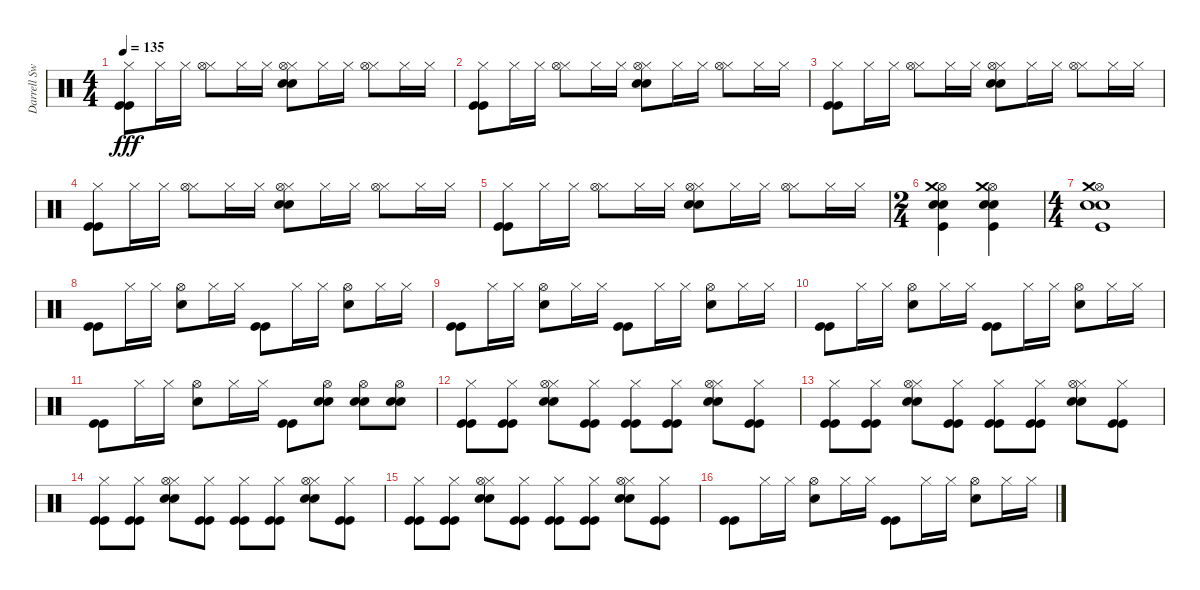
\track ("Darrell Sweet (drums)" "Darrell Sw") {instrument percussion}
\staff {score}
\articulation defaults
\ts (4 4)
\tempo 135
\clef neutral
\ks c
("Hi-Hat (closed)" "Kick (hit)" "Kick (hit)").8{dy fff} "Hi-Hat (closed)".16 "Hi-Hat (closed)".16 ("Hi-Hat (closed)" "Hi-Hat (open)").8 "Hi-Hat (closed)".16 "Hi-Hat (closed)".16 ("Hi-Hat (closed)" "Snare (hit) 2" "Electric Snare (hit)" "Hi-Hat (open)").8 "Hi-Hat (closed)".16 "Hi-Hat (closed)".16 ("Hi-Hat (closed)" "Hi-Hat (open)").8 "Hi-Hat (closed)".16 "Hi-Hat (closed)".16 |
("Hi-Hat (closed)" "Kick (hit)" "Kick (hit)").8 "Hi-Hat (closed)".16 "Hi-Hat (closed)".16 ("Hi-Hat (closed)" "Hi-Hat (open)").8 "Hi-Hat (closed)".16 "Hi-Hat (closed)".16 ("Hi-Hat (closed)" "Snare (hit) 2" "Electric Snare (hit)" "Hi-Hat (open)").8 "Hi-Hat (closed)".16 "Hi-Hat (closed)".16 ("Hi-Hat (closed)" "Hi-Hat (open)").8 "Hi-Hat (closed)".16 "Hi-Hat (closed)".16 |
("Hi-Hat (closed)" "Kick (hit)" "Kick (hit)").8 "Hi-Hat (closed)".16 "Hi-Hat (closed)".16 ("Hi-Hat (closed)" "Hi-Hat (open)").8 "Hi-Hat (closed)".16 "Hi-Hat (closed)".16 ("Hi-Hat (closed)" "Snare (hit) 2" "Electric Snare (hit)" "Hi-Hat (open)").8 "Hi-Hat (closed)".16 "Hi-Hat (closed)".16 ("Hi-Hat (closed)" "Hi-Hat (open)").8 "Hi-Hat (closed)".16 "Hi-Hat (closed)".16 |
("Hi-Hat (closed)" "Kick (hit)" "Kick (hit)").8 "Hi-Hat (closed)".16 "Hi-Hat (closed)".16 ("Hi-Hat (closed)" "Hi-Hat (open)").8 "Hi-Hat (closed)".16 "Hi-Hat (closed)".16 ("Hi-Hat (closed)" "Snare (hit) 2" "Electric Snare (hit)" "Hi-Hat (open)").8 "Hi-Hat (closed)".16 "Hi-Hat (closed)".16 ("Hi-Hat (closed)" "Hi-Hat (open)").8 "Hi-Hat (closed)".16 "Hi-Hat (closed)".16 |
("Hi-Hat (closed)" "Kick (hit)" "Kick (hit)").8 "Hi-Hat (closed)".16 "Hi-Hat (closed)".16 ("Hi-Hat (closed)" "Hi-Hat (open)").8 "Hi-Hat (closed)".16 "Hi-Hat (closed)".16 ("Hi-Hat (closed)" "Snare (hit) 2" "Electric Snare (hit)" "Hi-Hat (open)").8 "Hi-Hat (closed)".16 "Hi-Hat (closed)".16 ("Hi-Hat (closed)" "Hi-Hat (open)").8 "Hi-Hat (closed)".16 "Hi-Hat (closed)".16 |
\ts (2 4)
("Snare (hit) 2" "Electric Snare (hit)" "Hi-Hat (open)" "Kick (hit)" "Crash medium (hit)").4 ("Snare (hit) 2" "Electric Snare (hit)" "Hi-Hat (open)" "Kick (hit)" "Crash medium (hit)").4 |
\ts (4 4)
("Snare (hit) 2" "Electric Snare (hit)" "Hi-Hat (open)" "Kick (hit)" "Crash medium (hit)").1 |
("Kick (hit)" "Kick (hit)").8 "Hi-Hat (closed)".16 "Hi-Hat (closed)".16 ("Snare (hit) 2" "Hi-Hat (open)").8 "Hi-Hat (closed)".16 "Hi-Hat (closed)".16 ("Kick (hit)" "Kick (hit)").8 "Hi-Hat (closed)".16 "Hi-Hat (closed)".16 ("Snare (hit) 2" "Hi-Hat (open)").8 "Hi-Hat (closed)".16 "Hi-Hat (closed)".16 |
("Kick (hit)" "Kick (hit)").8 "Hi-Hat (closed)".16 "Hi-Hat (closed)".16 ("Snare (hit) 2" "Hi-Hat (open)").8 "Hi-Hat (closed)".16 "Hi-Hat (closed)".16 ("Kick (hit)" "Kick (hit)").8 "Hi-Hat (closed)".16 "Hi-Hat (closed)".16 ("Snare (hit) 2" "Hi-Hat (open)").8 "Hi-Hat (closed)".16 "Hi-Hat (closed)".16 |
("Kick (hit)" "Kick (hit)").8 "Hi-Hat (closed)".16 "Hi-Hat (closed)".16 ("Snare (hit) 2" "Hi-Hat (open)").8 "Hi-Hat (closed)".16 "Hi-Hat (closed)".16 ("Kick (hit)" "Kick (hit)").8 "Hi-Hat (closed)".16 "Hi-Hat (closed)".16 ("Snare (hit) 2" "Hi-Hat (open)").8 "Hi-Hat (closed)".16 "Hi-Hat (closed)".16 |
("Kick (hit)" "Kick (hit)").8 "Hi-Hat (closed)".16 "Hi-Hat (closed)".16 ("Snare (hit) 2" "Hi-Hat (open)").8 "Hi-Hat (closed)".16 "Hi-Hat (closed)".16 ("Kick (hit)" "Kick (hit)").8 ("Snare (hit) 2" "Electric Snare (hit)" "Hi-Hat (open)").8 ("Snare (hit) 2" "Electric Snare (hit)" "Hi-Hat (open)").8 ("Snare (hit) 2" "Electric Snare (hit)" "Hi-Hat (open)").8 |
("Hi-Hat (closed)" "Kick (hit)" "Kick (hit)").8 ("Hi-Hat (closed)" "Kick (hit)" "Kick (hit)").8 ("Hi-Hat (closed)" "Snare (hit) 2" "Electric Snare (hit)" "Hi-Hat (open)").8 ("Hi-Hat (closed)" "Kick (hit)" "Kick (hit)").8 ("Hi-Hat (closed)" "Kick (hit)" "Kick (hit)").8 ("Hi-Hat (closed)" "Kick (hit)" "Kick (hit)").8 ("Hi-Hat (closed)" "Snare (hit) 2" "Electric Snare (hit)" "Hi-Hat (open)").8 ("Hi-Hat (closed)" "Kick (hit)" "Kick (hit)").8 |
("Hi-Hat (closed)" "Kick (hit)" "Kick (hit)").8 ("Hi-Hat (closed)" "Kick (hit)" "Kick (hit)").8 ("Hi-Hat (closed)" "Snare (hit) 2" "Electric Snare (hit)" "Hi-Hat (open)").8 ("Hi-Hat (closed)" "Kick (hit)" "Kick (hit)").8 ("Hi-Hat (closed)" "Kick (hit)" "Kick (hit)").8 ("Hi-Hat (closed)" "Kick (hit)" "Kick (hit)").8 ("Hi-Hat (closed)" "Snare (hit) 2" "Electric Snare (hit)" "Hi-Hat (open)").8 ("Hi-Hat (closed)" "Kick (hit)" "Kick (hit)").8 |
("Hi-Hat (closed)" "Kick (hit)" "Kick (hit)").8 ("Hi-Hat (closed)" "Kick (hit)" "Kick (hit)").8 ("Hi-Hat (closed)" "Snare (hit) 2" "Electric Snare (hit)" "Hi-Hat (open)").8 ("Hi-Hat (closed)" "Kick (hit)" "Kick (hit)").8 ("Hi-Hat (closed)" "Kick (hit)" "Kick (hit)").8 ("Hi-Hat (closed)" "Kick (hit)" "Kick (hit)").8 ("Hi-Hat (closed)" "Snare (hit) 2" "Electric Snare (hit)" "Hi-Hat (open)").8 ("Hi-Hat (closed)" "Kick (hit)" "Kick (hit)").8 |
("Hi-Hat (closed)" "Kick (hit)" "Kick (hit)").8 ("Hi-Hat (closed)" "Kick (hit)" "Kick (hit)").8 ("Hi-Hat (closed)" "Snare (hit) 2" "Electric Snare (hit)" "Hi-Hat (open)").8 ("Hi-Hat (closed)" "Kick (hit)" "Kick (hit)").8 ("Hi-Hat (closed)" "Kick (hit)" "Kick (hit)").8 ("Hi-Hat (closed)" "Kick (hit)" "Kick (hit)").8 ("Hi-Hat (closed)" "Snare (hit) 2" "Electric Snare (hit)" "Hi-Hat (open)").8 ("Hi-Hat (closed)" "Kick (hit)" "Kick (hit)").8 |
("Kick (hit)" "Kick (hit)").8 "Hi-Hat (closed)".16 "Hi-Hat (closed)".16 ("Snare (hit) 2" "Hi-Hat (open)").8 "Hi-Hat (closed)".16 "Hi-Hat (closed)".16 ("Kick (hit)" "Kick (hit)").8 "Hi-Hat (closed)".16 "Hi-Hat (closed)".16 ("Snare (hit) 2" "Hi-Hat (open)").8 "Hi-Hat (closed)".16 "Hi-Hat (closed)".16
